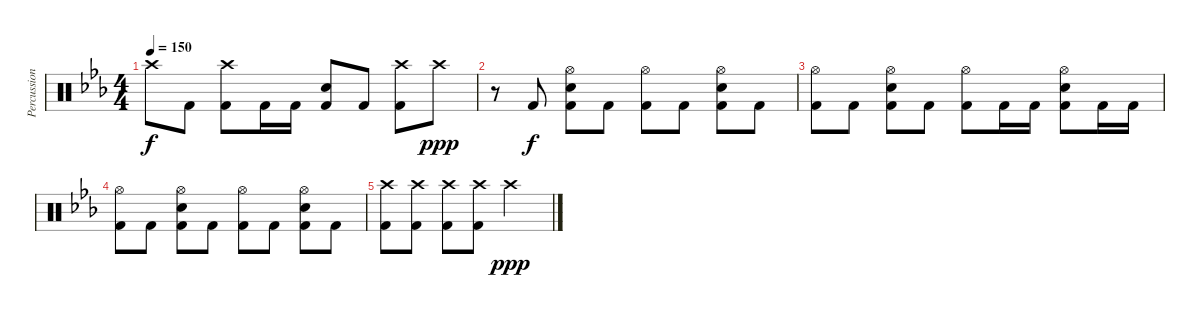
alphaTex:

\track ("Percussion" "Percussion") {instrument percussion}
\staff {score}
\articulation defaults
\ts (4 4)
\tempo 150
\clef neutral
\ks cminor "Crash high (hit)".8{dy f} "Kick (hit) 2".8
("Crash high (hit)" "Kick (hit) 2").8 "Kick (hit) 2".16 "Kick (hit) 2".16 ("Electric Snare (hit)" "Kick (hit) 2").8 "Kick (hit) 2".8 ("Crash high (hit)" "Kick (hit) 2").8 "Crash high (hit)".8{dy ppp} |
r.8 "Kick (hit) 2".8{dy f} ("Hi-Hat (open)" "Electric Snare (hit)" "Kick (hit) 2").8 "Kick (hit) 2".8 ("Hi-Hat (open)" "Kick (hit) 2").8 "Kick (hit) 2".8 ("Hi-Hat (open)" "Electric Snare (hit)" "Kick (hit) 2").8 "Kick (hit) 2".8 |
("Hi-Hat (open)" "Kick (hit) 2").8 "Kick (hit) 2".8 ("Hi-Hat (open)" "Electric Snare (hit)" "Kick (hit) 2").8 "Kick (hit) 2".8 ("Hi-Hat (open)" "Kick (hit) 2").8 "Kick (hit) 2".16 "Kick (hit) 2".16 ("Hi-Hat (open)" "Electric Snare (hit)" "Kick (hit) 2").8 "Kick (hit) 2".16 "Kick (hit) 2".16 |
("Hi-Hat (open)" "Kick (hit) 2").8 "Kick (hit) 2".8 ("Hi-Hat (open)" "Electric Snare (hit)" "Kick (hit) 2").8 "Kick (hit) 2".8 ("Hi-Hat (open)" "Kick (hit) 2").8 "Kick (hit) 2".8 ("Hi-Hat (open)" "Electric Snare (hit)" "Kick (hit) 2").8 "Kick (hit) 2".8 |
("Crash high (hit)" "Kick (hit) 2").8 ("Crash high (hit)" "Kick (hit) 2").8 ("Crash high (hit)" "Kick (hit) 2").8 ("Crash high (hit)" "Kick (hit) 2").8 "Crash high (hit)".2{dy ppp}
